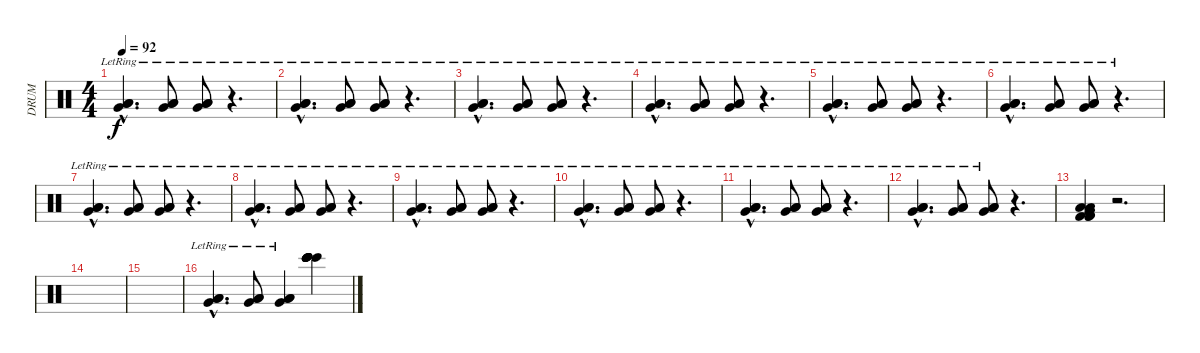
\track ("DRUM" "DRUM") {instrument percussion}
\staff {score}
\articulation defaults
\ts (4 4)
\tempo 92
\clef neutral
\ks c
("Low Floor Tom (hit)"{hac lr} "Very Low Tom (hit)"{hac} "Low Tom (hit)"{hac}).4{d dy f} ("Low Floor Tom (hit)"{lr} "Very Low Tom (hit)" "Low Tom (hit)").8 ("Low Floor Tom (hit)"{lr} "Very Low Tom (hit)"{lr} "Low Tom (hit)").8 r.4{d} |
("Low Floor Tom (hit)"{hac lr} "Very Low Tom (hit)"{hac} "Low Tom (hit)"{hac}).4{d} ("Low Floor Tom (hit)"{lr} "Very Low Tom (hit)" "Low Tom (hit)").8 ("Low Floor Tom (hit)"{lr} "Very Low Tom (hit)"{lr} "Low Tom (hit)").8 r.4{d} |
("Low Floor Tom (hit)"{hac lr} "Very Low Tom (hit)"{hac} "Low Tom (hit)"{hac}).4{d} ("Low Floor Tom (hit)"{lr} "Very Low Tom (hit)" "Low Tom (hit)").8 ("Low Floor Tom (hit)"{lr} "Very Low Tom (hit)"{lr} "Low Tom (hit)").8 r.4{d} |
("Low Floor Tom (hit)"{hac lr} "Very Low Tom (hit)"{hac} "Low Tom (hit)"{hac}).4{d} ("Low Floor Tom (hit)"{lr} "Very Low Tom (hit)" "Low Tom (hit)").8 ("Low Floor Tom (hit)"{lr} "Very Low Tom (hit)"{lr} "Low Tom (hit)").8 r.4{d} |
("Low Floor Tom (hit)"{hac lr} "Very Low Tom (hit)"{hac} "Low Tom (hit)"{hac}).4{d} ("Low Floor Tom (hit)"{lr} "Very Low Tom (hit)" "Low Tom (hit)").8 ("Low Floor Tom (hit)"{lr} "Very Low Tom (hit)"{lr} "Low Tom (hit)").8 r.4{d} |
("Low Floor Tom (hit)"{hac lr} "Very Low Tom (hit)"{hac} "Low Tom (hit)"{hac}).4{d} ("Low Floor Tom (hit)"{lr} "Very Low Tom (hit)" "Low Tom (hit)").8 ("Low Floor Tom (hit)"{lr} "Very Low Tom (hit)"{lr} "Low Tom (hit)").8 r.4{d} |
("Low Floor Tom (hit)"{hac lr} "Very Low Tom (hit)"{hac} "Low Tom (hit)"{hac}).4{d} ("Low Floor Tom (hit)"{lr} "Very Low Tom (hit)" "Low Tom (hit)").8 ("Low Floor Tom (hit)"{lr} "Very Low Tom (hit)"{lr} "Low Tom (hit)").8 r.4{d} |
("Low Floor Tom (hit)"{hac lr} "Very Low Tom (hit)"{hac} "Low Tom (hit)"{hac}).4{d} ("Low Floor Tom (hit)"{lr} "Very Low Tom (hit)" "Low Tom (hit)").8 ("Low Floor Tom (hit)"{lr} "Very Low Tom (hit)"{lr} "Low Tom (hit)").8 r.4{d} |
("Low Floor Tom (hit)"{hac lr} "Very Low Tom (hit)"{hac} "Low Tom (hit)"{hac}).4{d} ("Low Floor Tom (hit)"{lr} "Very Low Tom (hit)" "Low Tom (hit)").8 ("Low Floor Tom (hit)"{lr} "Very Low Tom (hit)"{lr} "Low Tom (hit)").8 r.4{d} |
("Low Floor Tom (hit)"{hac lr} "Very Low Tom (hit)"{hac} "Low Tom (hit)"{hac}).4{d} ("Low Floor Tom (hit)"{lr} "Very Low Tom (hit)" "Low Tom (hit)").8 ("Low Floor Tom (hit)"{lr} "Very Low Tom (hit)"{lr} "Low Tom (hit)").8 r.4{d} |
("Low Floor Tom (hit)"{hac lr} "Very Low Tom (hit)"{hac} "Low Tom (hit)"{hac}).4{d} ("Low Floor Tom (hit)"{lr} "Very Low Tom (hit)" "Low Tom (hit)").8 ("Low Floor Tom (hit)"{lr} "Very Low Tom (hit)"{lr} "Low Tom (hit)").8 r.4{d} |
("Low Floor Tom (hit)"{hac lr} "Very Low Tom (hit)"{hac} "Low Tom (hit)"{hac}).4{d} ("Low Floor Tom (hit)"{lr} "Very Low Tom (hit)" "Low Tom (hit)").8 ("Low Floor Tom (hit)"{lr} "Very Low Tom (hit)"{lr} "Low Tom (hit)").8 r.4{d} |
("Low Floor Tom (hit)" "Very Low Tom (hit)" "Low Tom (hit)" "Kick (hit) 2" "Kick (hit) 2" "Kick (hit) 2").4 r.2{d} |
|
|
("Low Floor Tom (hit)"{hac lr} "Very Low Tom (hit)"{hac} "Low Tom (hit)"{hac}).4{d} ("Low Floor Tom (hit)"{lr} "Very Low Tom (hit)" "Low Tom (hit)").8 ("Low Floor Tom (hit)"{lr} "Very Low Tom (hit)"{lr} "Low Tom (hit)").4 ("Bongo High (hit)" "Bongo High (hit)" "Bongo High (hit)" "Bongo High (hit)" "Bongo High (hit)" "Bongo High (hit)").4{volume 16}
